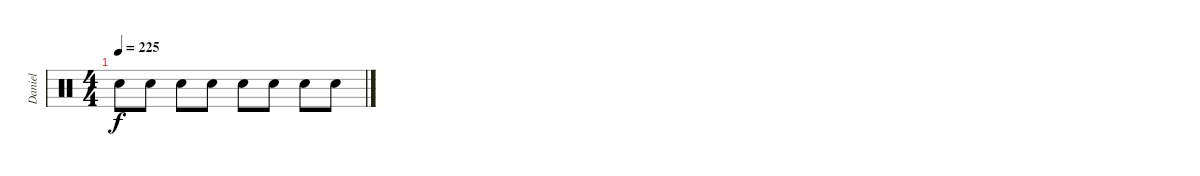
\track ("Daniel" "Daniel") {instrument percussion}
\staff {score}
\articulation defaults
\ts (4 4)
\tempo 225
\clef neutral
\ks c "Snare (hit) 2".8{dy f} "Snare (hit) 2".8 "Snare (hit) 2".8 "Snare (hit) 2".8 "Snare (hit) 2".8 "Snare (hit) 2".8 "Snare (hit) 2".8 "Snare (hit) 2".8
